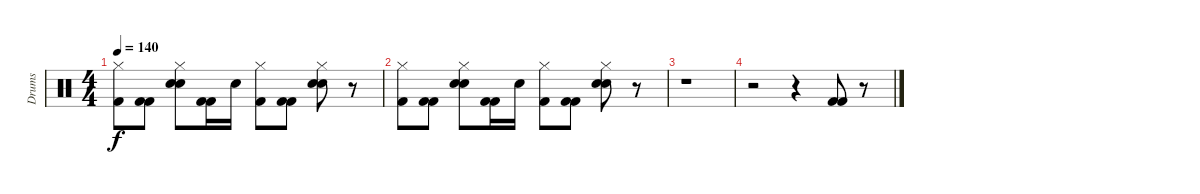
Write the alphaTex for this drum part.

\track ("Drums" "Drums") {instrument percussion}
\staff {score}
\articulation defaults
\ts (4 4)
\tempo 140
\clef neutral
\ks c
("Hi-Hat (closed)" "Kick (hit) 2").8{dy f} ("Kick (hit) 2" "Kick (hit) 2").8 ("Hi-Hat (closed)" "Hand Clap (hit)" "Snare (hit) 2").8 ("Kick (hit) 2" "Kick (hit) 2").16 "Snare (hit) 2".16 ("Hi-Hat (closed)" "Kick (hit) 2").8 ("Kick (hit) 2" "Kick (hit) 2").8 ("Hi-Hat (closed)" "Hand Clap (hit)" "Snare (hit) 2").8 r.8 |
("Hi-Hat (closed)" "Kick (hit) 2").8 ("Kick (hit) 2" "Kick (hit) 2").8 ("Hi-Hat (closed)" "Hand Clap (hit)" "Snare (hit) 2").8 ("Kick (hit) 2" "Kick (hit) 2").16 "Snare (hit) 2".16 ("Hi-Hat (closed)" "Kick (hit) 2").8 ("Kick (hit) 2" "Kick (hit) 2").8 ("Hi-Hat (closed)" "Hand Clap (hit)" "Snare (hit) 2").8 r.8 |
r.1 |
r.2 r.4 ("Kick (hit) 2" "Kick (hit) 2").8 r.8
